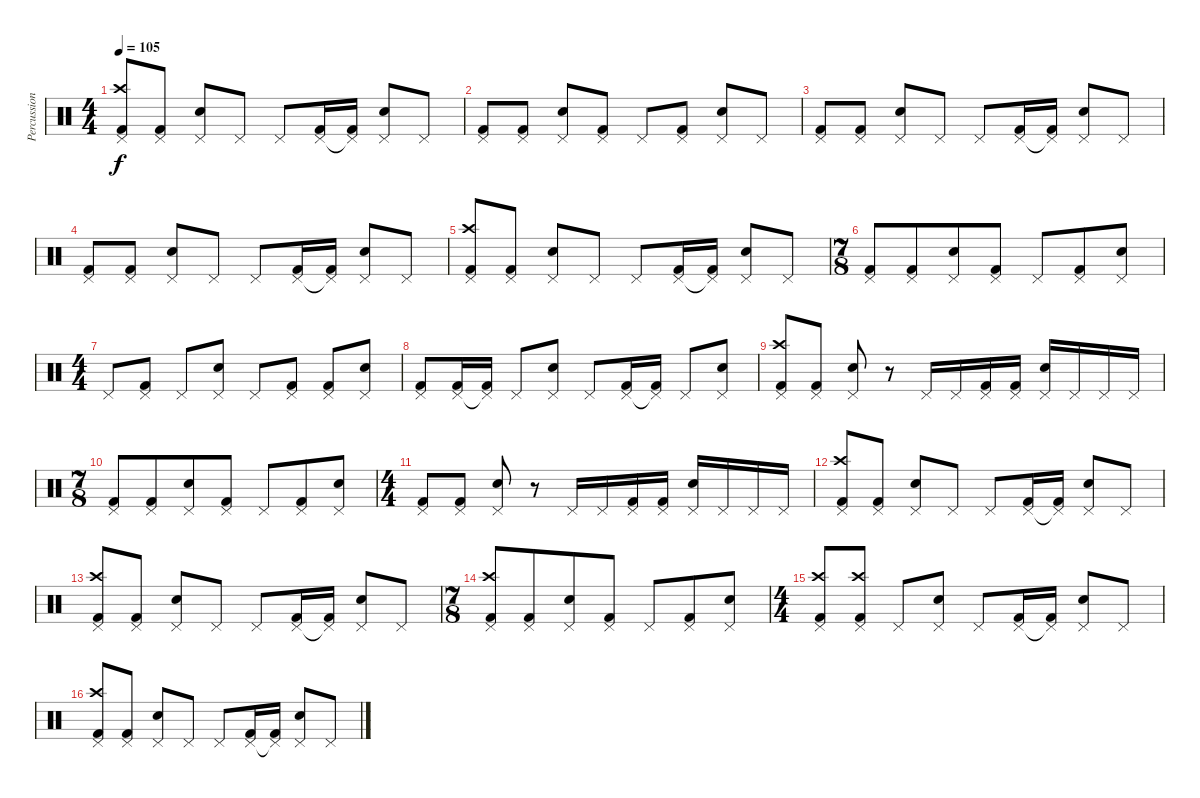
\track ("Percussion" "Percussion") {instrument percussion}
\staff {score}
\articulation defaults
\ts (4 4)
\tempo 105
\clef neutral
\ks c
("Pedal Hi-Hat (hit)" "Crash high (hit)" "Kick (hit) 2").8{dy f} ("Pedal Hi-Hat (hit)" "Kick (hit) 2").8 ("Pedal Hi-Hat (hit)" "Snare (hit) 2").8 "Pedal Hi-Hat (hit)".8 "Pedal Hi-Hat (hit)".8 ("Pedal Hi-Hat (hit)" "Kick (hit) 2").16 ("Pedal Hi-Hat (hit)"{t} "Kick (hit) 2").16 ("Pedal Hi-Hat (hit)" "Snare (hit) 2").8 "Pedal Hi-Hat (hit)".8 |
("Pedal Hi-Hat (hit)" "Kick (hit) 2").8 ("Pedal Hi-Hat (hit)" "Kick (hit) 2").8 ("Pedal Hi-Hat (hit)" "Snare (hit) 2").8 ("Pedal Hi-Hat (hit)" "Kick (hit) 2").8 "Pedal Hi-Hat (hit)".8 ("Pedal Hi-Hat (hit)" "Kick (hit) 2").8 ("Pedal Hi-Hat (hit)" "Snare (hit) 2").8 "Pedal Hi-Hat (hit)".8 |
("Pedal Hi-Hat (hit)" "Kick (hit) 2").8 ("Pedal Hi-Hat (hit)" "Kick (hit) 2").8 ("Pedal Hi-Hat (hit)" "Snare (hit) 2").8 "Pedal Hi-Hat (hit)".8 "Pedal Hi-Hat (hit)".8 ("Pedal Hi-Hat (hit)" "Kick (hit) 2").16 ("Pedal Hi-Hat (hit)"{t} "Kick (hit) 2").16 ("Pedal Hi-Hat (hit)" "Snare (hit) 2").8 "Pedal Hi-Hat (hit)".8 |
("Pedal Hi-Hat (hit)" "Kick (hit) 2").8 ("Pedal Hi-Hat (hit)" "Kick (hit) 2").8 ("Pedal Hi-Hat (hit)" "Snare (hit) 2").8 "Pedal Hi-Hat (hit)".8 "Pedal Hi-Hat (hit)".8 ("Pedal Hi-Hat (hit)" "Kick (hit) 2").16 ("Pedal Hi-Hat (hit)"{t} "Kick (hit) 2").16 ("Pedal Hi-Hat (hit)" "Snare (hit) 2").8 "Pedal Hi-Hat (hit)".8 |
("Pedal Hi-Hat (hit)" "Crash high (hit)" "Kick (hit) 2").8 ("Pedal Hi-Hat (hit)" "Kick (hit) 2").8 ("Pedal Hi-Hat (hit)" "Snare (hit) 2").8 "Pedal Hi-Hat (hit)".8 "Pedal Hi-Hat (hit)".8 ("Pedal Hi-Hat (hit)" "Kick (hit) 2").16 ("Pedal Hi-Hat (hit)"{t} "Kick (hit) 2").16 ("Pedal Hi-Hat (hit)" "Snare (hit) 2").8 "Pedal Hi-Hat (hit)".8 |
\ts (7 8)
("Pedal Hi-Hat (hit)" "Kick (hit) 2").8 ("Pedal Hi-Hat (hit)" "Kick (hit) 2").8 ("Pedal Hi-Hat (hit)" "Snare (hit) 2").8 ("Pedal Hi-Hat (hit)" "Kick (hit) 2").8 "Pedal Hi-Hat (hit)".8 ("Pedal Hi-Hat (hit)" "Kick (hit) 2").8 ("Pedal Hi-Hat (hit)" "Snare (hit) 2").8 |
\ts (4 4)
"Pedal Hi-Hat (hit)".8 ("Pedal Hi-Hat (hit)" "Kick (hit) 2").8 "Pedal Hi-Hat (hit)".8 ("Pedal Hi-Hat (hit)" "Snare (hit) 2").8 "Pedal Hi-Hat (hit)".8 ("Pedal Hi-Hat (hit)" "Kick (hit) 2").8 ("Pedal Hi-Hat (hit)" "Kick (hit) 2").8 ("Pedal Hi-Hat (hit)" "Snare (hit) 2").8 |
("Pedal Hi-Hat (hit)" "Kick (hit) 2").8 ("Pedal Hi-Hat (hit)" "Kick (hit) 2").16 ("Pedal Hi-Hat (hit)"{t} "Kick (hit) 2").16 "Pedal Hi-Hat (hit)".8 ("Pedal Hi-Hat (hit)" "Snare (hit) 2").8 "Pedal Hi-Hat (hit)".8 ("Pedal Hi-Hat (hit)" "Kick (hit) 2").16 ("Pedal Hi-Hat (hit)"{t} "Kick (hit) 2").16 "Pedal Hi-Hat (hit)".8 ("Pedal Hi-Hat (hit)" "Snare (hit) 2").8 |
("Pedal Hi-Hat (hit)" "Crash high (hit)" "Kick (hit) 2").8 ("Pedal Hi-Hat (hit)" "Kick (hit) 2").8 ("Pedal Hi-Hat (hit)" "Snare (hit) 2").8 r.8 "Pedal Hi-Hat (hit)".16 "Pedal Hi-Hat (hit)".16 ("Pedal Hi-Hat (hit)" "Kick (hit) 2").16 ("Pedal Hi-Hat (hit)" "Kick (hit) 2").16 ("Pedal Hi-Hat (hit)" "Snare (hit) 2").16 "Pedal Hi-Hat (hit)".16 "Pedal Hi-Hat (hit)".16 "Pedal Hi-Hat (hit)".16 |
\ts (7 8)
("Pedal Hi-Hat (hit)" "Kick (hit) 2").8 ("Pedal Hi-Hat (hit)" "Kick (hit) 2").8 ("Pedal Hi-Hat (hit)" "Snare (hit) 2").8 ("Pedal Hi-Hat (hit)" "Kick (hit) 2").8 "Pedal Hi-Hat (hit)".8 ("Pedal Hi-Hat (hit)" "Kick (hit) 2").8 ("Pedal Hi-Hat (hit)" "Snare (hit) 2").8 |
\ts (4 4)
("Pedal Hi-Hat (hit)" "Kick (hit) 2").8 ("Pedal Hi-Hat (hit)" "Kick (hit) 2").8 ("Pedal Hi-Hat (hit)" "Snare (hit) 2").8 r.8 "Pedal Hi-Hat (hit)".16 "Pedal Hi-Hat (hit)".16 ("Pedal Hi-Hat (hit)" "Kick (hit) 2").16 ("Pedal Hi-Hat (hit)" "Kick (hit) 2").16 ("Pedal Hi-Hat (hit)" "Snare (hit) 2").16 "Pedal Hi-Hat (hit)".16 "Pedal Hi-Hat (hit)".16 "Pedal Hi-Hat (hit)".16 |
("Pedal Hi-Hat (hit)" "Crash high (hit)" "Kick (hit) 2").8 ("Pedal Hi-Hat (hit)" "Kick (hit) 2").8 ("Pedal Hi-Hat (hit)" "Snare (hit) 2").8 "Pedal Hi-Hat (hit)".8 "Pedal Hi-Hat (hit)".8 ("Pedal Hi-Hat (hit)" "Kick (hit) 2").16 ("Pedal Hi-Hat (hit)"{t} "Kick (hit) 2").16 ("Pedal Hi-Hat (hit)" "Snare (hit) 2").8 "Pedal Hi-Hat (hit)".8 |
("Pedal Hi-Hat (hit)" "Crash high (hit)" "Kick (hit) 2").8 ("Pedal Hi-Hat (hit)" "Kick (hit) 2").8 ("Pedal Hi-Hat (hit)" "Snare (hit) 2").8 "Pedal Hi-Hat (hit)".8 "Pedal Hi-Hat (hit)".8 ("Pedal Hi-Hat (hit)" "Kick (hit) 2").16 ("Pedal Hi-Hat (hit)"{t} "Kick (hit) 2").16 ("Pedal Hi-Hat (hit)" "Snare (hit) 2").8 "Pedal Hi-Hat (hit)".8 |
\ts (7 8)
("Pedal Hi-Hat (hit)" "Crash high (hit)" "Kick (hit) 2").8 ("Pedal Hi-Hat (hit)" "Kick (hit) 2").8 ("Pedal Hi-Hat (hit)" "Snare (hit) 2").8 ("Pedal Hi-Hat (hit)" "Kick (hit) 2").8 "Pedal Hi-Hat (hit)".8 ("Pedal Hi-Hat (hit)" "Kick (hit) 2").8 ("Pedal Hi-Hat (hit)" "Snare (hit) 2").8 |
\ts (4 4)
("Pedal Hi-Hat (hit)" "Crash high (hit)" "Kick (hit) 2").8 ("Pedal Hi-Hat (hit)" "Crash high (hit)" "Kick (hit) 2").8 "Pedal Hi-Hat (hit)".8 ("Pedal Hi-Hat (hit)" "Snare (hit) 2").8 "Pedal Hi-Hat (hit)".8 ("Pedal Hi-Hat (hit)" "Kick (hit) 2").16 ("Pedal Hi-Hat (hit)"{t} "Kick (hit) 2").16 ("Pedal Hi-Hat (hit)" "Snare (hit) 2").8 "Pedal Hi-Hat (hit)".8 |
("Pedal Hi-Hat (hit)" "Crash high (hit)" "Kick (hit) 2").8 ("Pedal Hi-Hat (hit)" "Kick (hit) 2").8 ("Pedal Hi-Hat (hit)" "Snare (hit) 2").8 "Pedal Hi-Hat (hit)".8 "Pedal Hi-Hat (hit)".8 ("Pedal Hi-Hat (hit)" "Kick (hit) 2").16 ("Pedal Hi-Hat (hit)"{t} "Kick (hit) 2").16 ("Pedal Hi-Hat (hit)" "Snare (hit) 2").8 "Pedal Hi-Hat (hit)".8
